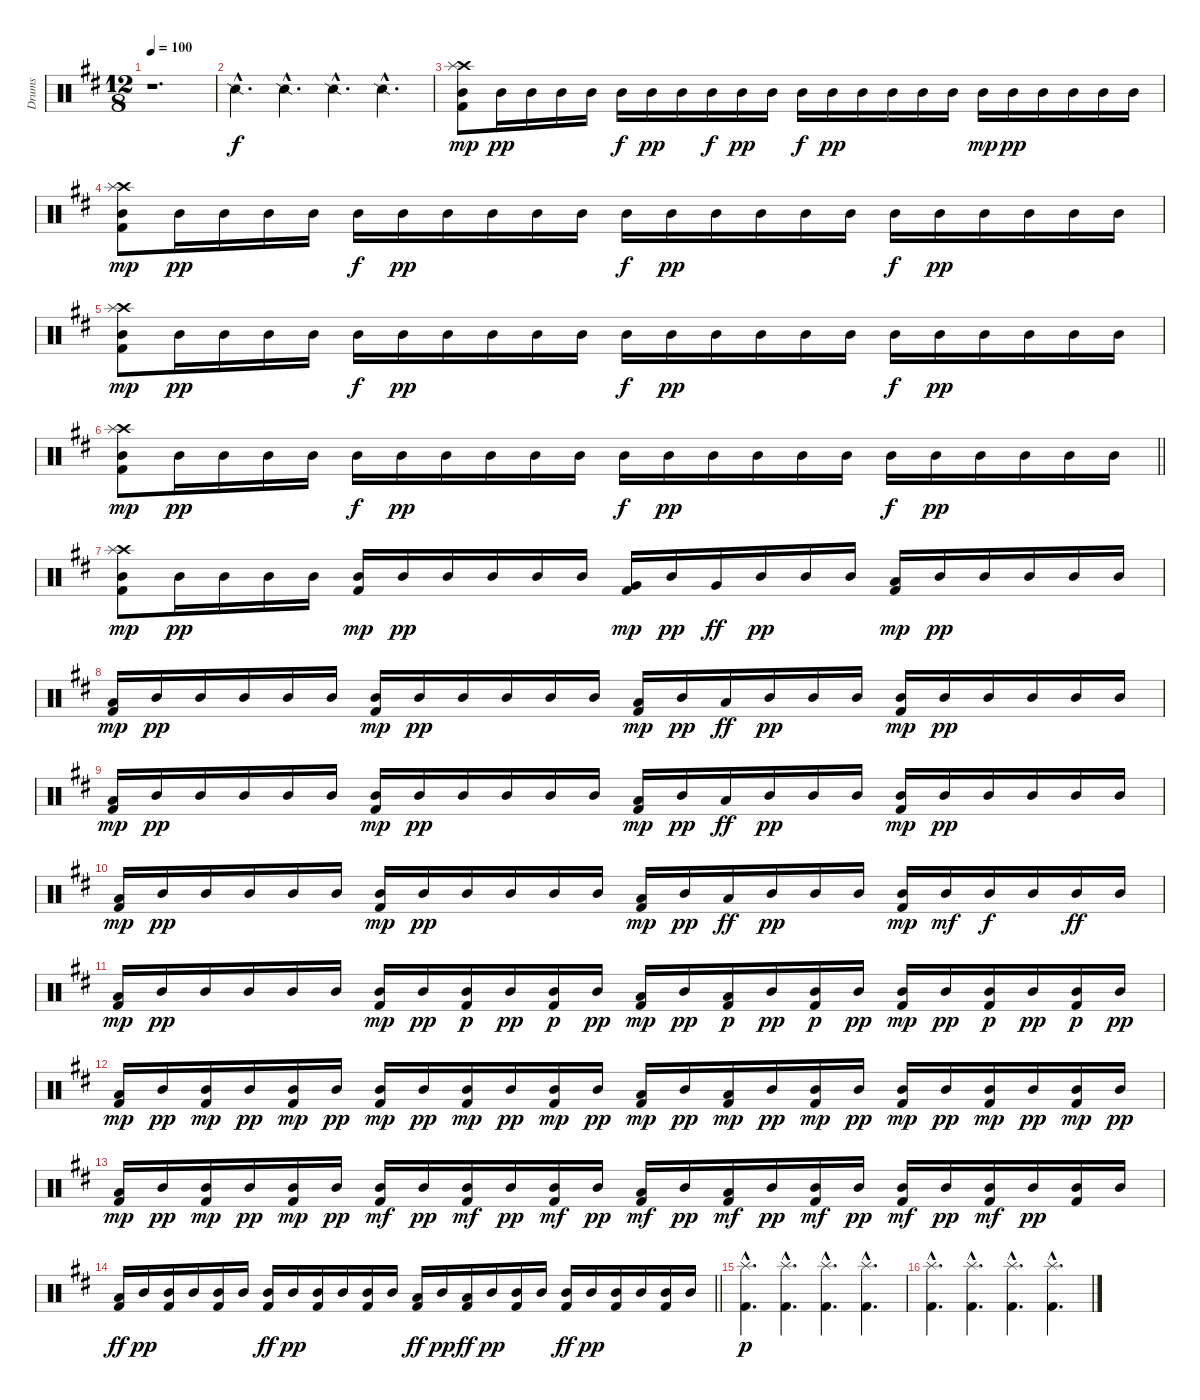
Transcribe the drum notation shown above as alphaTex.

\track ("Drums" "Drums") {instrument percussion}
\staff {score}
\articulation defaults
\ts (12 8)
\tempo 100
\clef neutral
\ks bminor
r.1{d dy f} |
"Snare (side stick) 2"{hac}.4{d} "Snare (side stick) 2"{hac}.4{d} "Snare (side stick) 2"{hac}.4{d} "Snare (side stick) 2"{hac}.4{d} |
("Crash high (hit)" "Splash (hit)" "Mid Tom (hit)" "Kick (hit) 2").8{dy mp} "Mid Tom (hit)".16{dy pp} "Mid Tom (hit)".16 "Mid Tom (hit)".16 "Mid Tom (hit)".16 "Mid Tom (hit)".16{dy f} "Mid Tom (hit)".16{dy pp} "Mid Tom (hit)".16 "Mid Tom (hit)".16{dy f} "Mid Tom (hit)".16{dy pp} "Mid Tom (hit)".16 "Mid Tom (hit)".16{dy f} "Mid Tom (hit)".16{dy pp} "Mid Tom (hit)".16 "Mid Tom (hit)".16 "Mid Tom (hit)".16 "Mid Tom (hit)".16 "Mid Tom (hit)".16{dy mp} "Mid Tom (hit)".16{dy pp} "Mid Tom (hit)".16 "Mid Tom (hit)".16 "Mid Tom (hit)".16 "Mid Tom (hit)".16 |
("Crash high (hit)" "Splash (hit)" "Mid Tom (hit)" "Kick (hit) 2").8{dy mp} "Mid Tom (hit)".16{dy pp} "Mid Tom (hit)".16 "Mid Tom (hit)".16 "Mid Tom (hit)".16 "Mid Tom (hit)".16{dy f} "Mid Tom (hit)".16{dy pp} "Mid Tom (hit)".16 "Mid Tom (hit)".16 "Mid Tom (hit)".16 "Mid Tom (hit)".16 "Mid Tom (hit)".16{dy f} "Mid Tom (hit)".16{dy pp} "Mid Tom (hit)".16 "Mid Tom (hit)".16 "Mid Tom (hit)".16 "Mid Tom (hit)".16 "Mid Tom (hit)".16{dy f} "Mid Tom (hit)".16{dy pp} "Mid Tom (hit)".16 "Mid Tom (hit)".16 "Mid Tom (hit)".16 "Mid Tom (hit)".16 |
("Crash high (hit)" "Splash (hit)" "Mid Tom (hit)" "Kick (hit) 2").8{dy mp} "Mid Tom (hit)".16{dy pp} "Mid Tom (hit)".16 "Mid Tom (hit)".16 "Mid Tom (hit)".16 "Mid Tom (hit)".16{dy f} "Mid Tom (hit)".16{dy pp} "Mid Tom (hit)".16 "Mid Tom (hit)".16 "Mid Tom (hit)".16 "Mid Tom (hit)".16 "Mid Tom (hit)".16{dy f} "Mid Tom (hit)".16{dy pp} "Mid Tom (hit)".16 "Mid Tom (hit)".16 "Mid Tom (hit)".16 "Mid Tom (hit)".16 "Mid Tom (hit)".16{dy f} "Mid Tom (hit)".16{dy pp} "Mid Tom (hit)".16 "Mid Tom (hit)".16 "Mid Tom (hit)".16 "Mid Tom (hit)".16 |
\barLineRight lightlight
("Crash high (hit)" "Splash (hit)" "Mid Tom (hit)" "Kick (hit) 2").8{dy mp} "Mid Tom (hit)".16{dy pp} "Mid Tom (hit)".16 "Mid Tom (hit)".16 "Mid Tom (hit)".16 "Mid Tom (hit)".16{dy f} "Mid Tom (hit)".16{dy pp} "Mid Tom (hit)".16 "Mid Tom (hit)".16 "Mid Tom (hit)".16 "Mid Tom (hit)".16 "Mid Tom (hit)".16{dy f} "Mid Tom (hit)".16{dy pp} "Mid Tom (hit)".16 "Mid Tom (hit)".16 "Mid Tom (hit)".16 "Mid Tom (hit)".16 "Mid Tom (hit)".16{dy f} "Mid Tom (hit)".16{dy pp} "Mid Tom (hit)".16 "Mid Tom (hit)".16 "Mid Tom (hit)".16 "Mid Tom (hit)".16 |
("Crash high (hit)" "Splash (hit)" "Mid Tom (hit)" "Kick (hit) 2").8{dy mp} "Mid Tom (hit)".16{dy pp} "Mid Tom (hit)".16 "Mid Tom (hit)".16 "Mid Tom (hit)".16 ("Mid Tom (hit)" "Kick (hit) 2").16{dy mp} "Mid Tom (hit)".16{dy pp} "Mid Tom (hit)".16 "Mid Tom (hit)".16 "Mid Tom (hit)".16 "Mid Tom (hit)".16 ("Very Low Tom (hit)" "Kick (hit) 2").16{dy mp} "Mid Tom (hit)".16{dy pp} "Very Low Tom (hit)".16{dy ff} "Mid Tom (hit)".16{dy pp} "Mid Tom (hit)".16 "Mid Tom (hit)".16 ("Low Tom (hit)" "Kick (hit) 2").16{dy mp} "Mid Tom (hit)".16{dy pp} "Mid Tom (hit)".16 "Mid Tom (hit)".16 "Mid Tom (hit)".16 "Mid Tom (hit)".16 |
("Low Tom (hit)" "Kick (hit) 2").16{dy mp} "Mid Tom (hit)".16{dy pp} "Mid Tom (hit)".16 "Mid Tom (hit)".16 "Mid Tom (hit)".16 "Mid Tom (hit)".16 ("Mid Tom (hit)" "Kick (hit) 2").16{dy mp} "Mid Tom (hit)".16{dy pp} "Mid Tom (hit)".16 "Mid Tom (hit)".16 "Mid Tom (hit)".16 "Mid Tom (hit)".16 ("Low Tom (hit)" "Kick (hit) 2").16{dy mp} "Mid Tom (hit)".16{dy pp} "Low Tom (hit)".16{dy ff} "Mid Tom (hit)".16{dy pp} "Mid Tom (hit)".16 "Mid Tom (hit)".16 ("Mid Tom (hit)" "Kick (hit) 2").16{dy mp} "Mid Tom (hit)".16{dy pp} "Mid Tom (hit)".16 "Mid Tom (hit)".16 "Mid Tom (hit)".16 "Mid Tom (hit)".16 |
("Low Tom (hit)" "Kick (hit) 2").16{dy mp} "Mid Tom (hit)".16{dy pp} "Mid Tom (hit)".16 "Mid Tom (hit)".16 "Mid Tom (hit)".16 "Mid Tom (hit)".16 ("Mid Tom (hit)" "Kick (hit) 2").16{dy mp} "Mid Tom (hit)".16{dy pp} "Mid Tom (hit)".16 "Mid Tom (hit)".16 "Mid Tom (hit)".16 "Mid Tom (hit)".16 ("Low Tom (hit)" "Kick (hit) 2").16{dy mp} "Mid Tom (hit)".16{dy pp} "Low Tom (hit)".16{dy ff} "Mid Tom (hit)".16{dy pp} "Mid Tom (hit)".16 "Mid Tom (hit)".16 ("Mid Tom (hit)" "Kick (hit) 2").16{dy mp} "Mid Tom (hit)".16{dy pp} "Mid Tom (hit)".16 "Mid Tom (hit)".16 "Mid Tom (hit)".16 "Mid Tom (hit)".16 |
("Low Tom (hit)" "Kick (hit) 2").16{dy mp} "Mid Tom (hit)".16{dy pp} "Mid Tom (hit)".16 "Mid Tom (hit)".16 "Mid Tom (hit)".16 "Mid Tom (hit)".16 ("Mid Tom (hit)" "Kick (hit) 2").16{dy mp} "Mid Tom (hit)".16{dy pp} "Mid Tom (hit)".16 "Mid Tom (hit)".16 "Mid Tom (hit)".16 "Mid Tom (hit)".16 ("Low Tom (hit)" "Kick (hit) 2").16{dy mp} "Mid Tom (hit)".16{dy pp} "Low Tom (hit)".16{dy ff} "Mid Tom (hit)".16{dy pp} "Mid Tom (hit)".16 "Mid Tom (hit)".16 ("Mid Tom (hit)" "Kick (hit) 2").16{dy mp} "Mid Tom (hit)".16{dy mf} "Mid Tom (hit)".16{dy f} "Mid Tom (hit)".16 "Mid Tom (hit)".16{dy ff} "Mid Tom (hit)".16 |
("Low Tom (hit)" "Kick (hit) 2").16{dy mp} "Mid Tom (hit)".16{dy pp} "Mid Tom (hit)".16 "Mid Tom (hit)".16 "Mid Tom (hit)".16 "Mid Tom (hit)".16 ("Mid Tom (hit)" "Kick (hit) 2").16{dy mp} "Mid Tom (hit)".16{dy pp} ("Mid Tom (hit)" "Kick (hit) 2").16{dy p} "Mid Tom (hit)".16{dy pp} ("Mid Tom (hit)" "Kick (hit) 2").16{dy p} "Mid Tom (hit)".16{dy pp} ("Low Tom (hit)" "Kick (hit) 2").16{dy mp} "Mid Tom (hit)".16{dy pp} ("Low Tom (hit)" "Kick (hit) 2").16{dy p} "Mid Tom (hit)".16{dy pp} ("Mid Tom (hit)" "Kick (hit) 2").16{dy p} "Mid Tom (hit)".16{dy pp} ("Mid Tom (hit)" "Kick (hit) 2").16{dy mp} "Mid Tom (hit)".16{dy pp} ("Mid Tom (hit)" "Kick (hit) 2").16{dy p} "Mid Tom (hit)".16{dy pp} ("Mid Tom (hit)" "Kick (hit) 2").16{dy p} "Mid Tom (hit)".16{dy pp} |
("Low Tom (hit)" "Kick (hit) 2").16{dy mp} "Mid Tom (hit)".16{dy pp} ("Mid Tom (hit)" "Kick (hit) 2").16{dy mp} "Mid Tom (hit)".16{dy pp} ("Mid Tom (hit)" "Kick (hit) 2").16{dy mp} "Mid Tom (hit)".16{dy pp} ("Mid Tom (hit)" "Kick (hit) 2").16{dy mp} "Mid Tom (hit)".16{dy pp} ("Mid Tom (hit)" "Kick (hit) 2").16{dy mp} "Mid Tom (hit)".16{dy pp} ("Mid Tom (hit)" "Kick (hit) 2").16{dy mp} "Mid Tom (hit)".16{dy pp} ("Low Tom (hit)" "Kick (hit) 2").16{dy mp} "Mid Tom (hit)".16{dy pp} ("Low Tom (hit)" "Kick (hit) 2").16{dy mp} "Mid Tom (hit)".16{dy pp} ("Mid Tom (hit)" "Kick (hit) 2").16{dy mp} "Mid Tom (hit)".16{dy pp} ("Mid Tom (hit)" "Kick (hit) 2").16{dy mp} "Mid Tom (hit)".16{dy pp} ("Mid Tom (hit)" "Kick (hit) 2").16{dy mp} "Mid Tom (hit)".16{dy pp} ("Mid Tom (hit)" "Kick (hit) 2").16{dy mp} "Mid Tom (hit)".16{dy pp} |
("Low Tom (hit)" "Kick (hit) 2").16{dy mp} "Mid Tom (hit)".16{dy pp} ("Mid Tom (hit)" "Kick (hit) 2").16{dy mp} "Mid Tom (hit)".16{dy pp} ("Mid Tom (hit)" "Kick (hit) 2").16{dy mp} "Mid Tom (hit)".16{dy pp} ("Mid Tom (hit)" "Kick (hit) 2").16{dy mf} "Mid Tom (hit)".16{dy pp} ("Mid Tom (hit)" "Kick (hit) 2").16{dy mf} "Mid Tom (hit)".16{dy pp} ("Mid Tom (hit)" "Kick (hit) 2").16{dy mf} "Mid Tom (hit)".16{dy pp} ("Low Tom (hit)" "Kick (hit) 2").16{dy mf} "Mid Tom (hit)".16{dy pp} ("Low Tom (hit)" "Kick (hit) 2").16{dy mf} "Mid Tom (hit)".16{dy pp} ("Mid Tom (hit)" "Kick (hit) 2").16{dy mf} "Mid Tom (hit)".16{dy pp} ("Mid Tom (hit)" "Kick (hit) 2").16{dy mf} "Mid Tom (hit)".16{dy pp} ("Mid Tom (hit)" "Kick (hit) 2").16{dy mf} "Mid Tom (hit)".16{dy pp} ("Mid Tom (hit)" "Kick (hit) 2").16 "Mid Tom (hit)".16 |
\barLineRight lightlight
("Low Tom (hit)" "Kick (hit) 2").16{dy ff} "Mid Tom (hit)".16{dy pp} ("Mid Tom (hit)" "Kick (hit) 2").16 "Mid Tom (hit)".16 ("Mid Tom (hit)" "Kick (hit) 2").16 "Mid Tom (hit)".16 ("Mid Tom (hit)" "Kick (hit) 2").16{dy ff} "Mid Tom (hit)".16{dy pp} ("Mid Tom (hit)" "Kick (hit) 2").16 "Mid Tom (hit)".16 ("Mid Tom (hit)" "Kick (hit) 2").16 "Mid Tom (hit)".16 ("Low Tom (hit)" "Kick (hit) 2").16{dy ff} "Mid Tom (hit)".16{dy pp} ("Low Tom (hit)" "Kick (hit) 2").16{dy ff} "Mid Tom (hit)".16{dy pp} ("Mid Tom (hit)" "Kick (hit) 2").16 "Mid Tom (hit)".16 ("Mid Tom (hit)" "Kick (hit) 2").16{dy ff} "Mid Tom (hit)".16{dy pp} ("Mid Tom (hit)" "Kick (hit) 2").16 "Mid Tom (hit)".16 ("Mid Tom (hit)" "Kick (hit) 2").16 "Mid Tom (hit)".16 |
("Splash (hit)"{hac} "Kick (hit) 2"{hac}).4{d dy p} ("Splash (hit)"{hac} "Kick (hit) 2"{hac}).4{d} ("Splash (hit)"{hac} "Kick (hit) 2"{hac}).4{d} ("Splash (hit)"{hac} "Kick (hit) 2"{hac}).4{d} |
("Splash (hit)"{hac} "Kick (hit) 2"{hac}).4{d} ("Splash (hit)"{hac} "Kick (hit) 2"{hac}).4{d} ("Splash (hit)"{hac} "Kick (hit) 2"{hac}).4{d} ("Splash (hit)"{hac} "Kick (hit) 2"{hac}).4{d}
